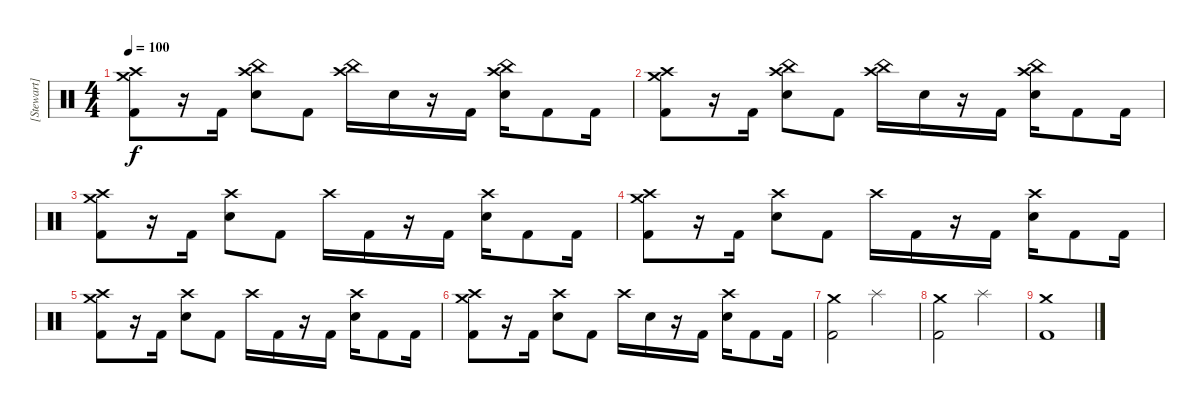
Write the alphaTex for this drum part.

\track ("[Stewart]" "[Stewart]") {instrument percussion}
\staff {score}
\articulation defaults
\ts (4 4)
\tempo 100
\clef neutral
\ks c
("Crash high (hit)" "Crash medium (hit)" "Kick (hit) 2").8{dy f} r.16 "Kick (hit) 2".16 ("Crash high (hit)" "China (hit)" "Electric Snare (hit)").8 "Kick (hit) 2".8 ("Crash high (hit)" "China (hit)").16 "Electric Snare (hit)".16 r.16 "Kick (hit) 2".16 ("Crash high (hit)" "China (hit)" "Electric Snare (hit)").16 "Kick (hit) 2".8 "Kick (hit) 2".16 |
("Crash high (hit)" "Crash medium (hit)" "Kick (hit) 2").8 r.16 "Kick (hit) 2".16 ("Crash high (hit)" "China (hit)" "Electric Snare (hit)").8 "Kick (hit) 2".8 ("Crash high (hit)" "China (hit)").16 "Electric Snare (hit)".16 r.16 "Kick (hit) 2".16 ("Crash high (hit)" "China (hit)" "Electric Snare (hit)").16 "Kick (hit) 2".8 "Kick (hit) 2".16 |
("Crash high (hit)" "Crash medium (hit)" "Kick (hit) 2").8 r.16 "Kick (hit) 2".16 ("Crash high (hit)" "Electric Snare (hit)").8 "Kick (hit) 2".8 "Crash high (hit)".16 "Kick (hit) 2".16 r.16 "Kick (hit) 2".16 ("Crash high (hit)" "Electric Snare (hit)").16 "Kick (hit) 2".8 "Kick (hit) 2".16 |
("Crash high (hit)" "Crash medium (hit)" "Kick (hit) 2").8 r.16 "Kick (hit) 2".16 ("Crash high (hit)" "Electric Snare (hit)").8 "Kick (hit) 2".8 "Crash high (hit)".16 "Kick (hit) 2".16 r.16 "Kick (hit) 2".16 ("Crash high (hit)" "Electric Snare (hit)").16 "Kick (hit) 2".8 "Kick (hit) 2".16 |
("Crash high (hit)" "Crash medium (hit)" "Kick (hit) 2").8 r.16 "Kick (hit) 2".16 ("Crash high (hit)" "Electric Snare (hit)").8 "Kick (hit) 2".8 "Crash high (hit)".16 "Kick (hit) 2".16 r.16 "Kick (hit) 2".16 ("Crash high (hit)" "Electric Snare (hit)").16 "Kick (hit) 2".8 "Kick (hit) 2".16 |
("Crash high (hit)" "Crash medium (hit)" "Kick (hit) 2").8 r.16 "Kick (hit) 2".16 ("Crash high (hit)" "Electric Snare (hit)").8 "Kick (hit) 2".8 "Crash high (hit)".16 "Electric Snare (hit)".16 r.16 "Kick (hit) 2".16 ("Crash high (hit)" "Electric Snare (hit)").16 "Kick (hit) 2".8 "Kick (hit) 2".16 |
("Crash medium (hit)" "Kick (hit) 2").2 "Splash (hit)".2 |
("Crash medium (hit)" "Kick (hit) 2").2 "Splash (hit)".2 |
("Crash medium (hit)" "Kick (hit) 2").1
